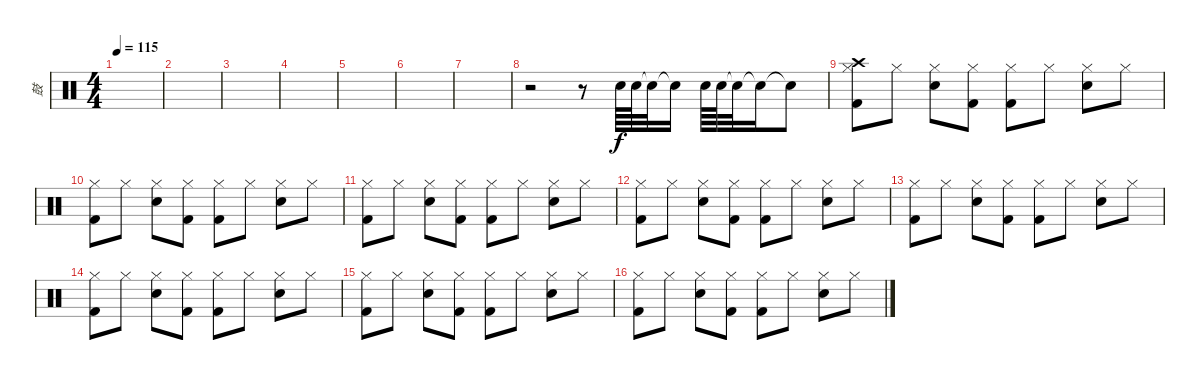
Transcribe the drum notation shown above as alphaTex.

\track ("鼓" "鼓") {instrument percussion}
\staff {score}
\articulation defaults
\ts (4 4)
\tempo 115
\clef neutral
\ks c
|
|
|
|
|
|
|
r.2 r.8 "Electric Snare (hit)".64 "Electric Snare (hit)".64 "Snare (hit)"{t}.32 "Snare (hit)"{t}.16 "Electric Snare (hit)".64 "Electric Snare (hit)".64 "Snare (hit)"{t}.32 "Snare (hit)"{t}.16 "Snare (hit)"{t}.8 |
("Hi-Hat (closed)" "Crash high (hit)" "Kick (hit) 2").8 "Hi-Hat (closed)".8 ("Hi-Hat (closed)" "Electric Snare (hit)").8 ("Hi-Hat (closed)" "Kick (hit) 2").8 ("Hi-Hat (closed)" "Kick (hit) 2").8 "Hi-Hat (closed)".8 ("Hi-Hat (closed)" "Electric Snare (hit)").8 "Hi-Hat (closed)".8 |
("Hi-Hat (closed)" "Kick (hit) 2").8 "Hi-Hat (closed)".8 ("Hi-Hat (closed)" "Electric Snare (hit)").8 ("Hi-Hat (closed)" "Kick (hit) 2").8 ("Hi-Hat (closed)" "Kick (hit) 2").8 "Hi-Hat (closed)".8 ("Hi-Hat (closed)" "Electric Snare (hit)").8 "Hi-Hat (closed)".8 |
("Hi-Hat (closed)" "Kick (hit) 2").8 "Hi-Hat (closed)".8 ("Hi-Hat (closed)" "Electric Snare (hit)").8 ("Hi-Hat (closed)" "Kick (hit) 2").8 ("Hi-Hat (closed)" "Kick (hit) 2").8 "Hi-Hat (closed)".8 ("Hi-Hat (closed)" "Electric Snare (hit)").8 "Hi-Hat (closed)".8 |
("Hi-Hat (closed)" "Kick (hit) 2").8 "Hi-Hat (closed)".8 ("Hi-Hat (closed)" "Electric Snare (hit)").8 ("Hi-Hat (closed)" "Kick (hit) 2").8 ("Hi-Hat (closed)" "Kick (hit) 2").8 "Hi-Hat (closed)".8 ("Hi-Hat (closed)" "Electric Snare (hit)").8 "Hi-Hat (closed)".8 |
("Hi-Hat (closed)" "Kick (hit) 2").8 "Hi-Hat (closed)".8 ("Hi-Hat (closed)" "Electric Snare (hit)").8 ("Hi-Hat (closed)" "Kick (hit) 2").8 ("Hi-Hat (closed)" "Kick (hit) 2").8 "Hi-Hat (closed)".8 ("Hi-Hat (closed)" "Electric Snare (hit)").8 "Hi-Hat (closed)".8 |
("Hi-Hat (closed)" "Kick (hit) 2").8 "Hi-Hat (closed)".8 ("Hi-Hat (closed)" "Electric Snare (hit)").8 ("Hi-Hat (closed)" "Kick (hit) 2").8 ("Hi-Hat (closed)" "Kick (hit) 2").8 "Hi-Hat (closed)".8 ("Hi-Hat (closed)" "Electric Snare (hit)").8 "Hi-Hat (closed)".8 |
("Hi-Hat (closed)" "Kick (hit) 2").8 "Hi-Hat (closed)".8 ("Hi-Hat (closed)" "Electric Snare (hit)").8 ("Hi-Hat (closed)" "Kick (hit) 2").8 ("Hi-Hat (closed)" "Kick (hit) 2").8 "Hi-Hat (closed)".8 ("Hi-Hat (closed)" "Electric Snare (hit)").8 "Hi-Hat (closed)".8 |
("Hi-Hat (closed)" "Kick (hit) 2").8 "Hi-Hat (closed)".8 ("Hi-Hat (closed)" "Electric Snare (hit)").8 ("Hi-Hat (closed)" "Kick (hit) 2").8 ("Hi-Hat (closed)" "Kick (hit) 2").8 "Hi-Hat (closed)".8 ("Hi-Hat (closed)" "Electric Snare (hit)").8 "Hi-Hat (closed)".8
